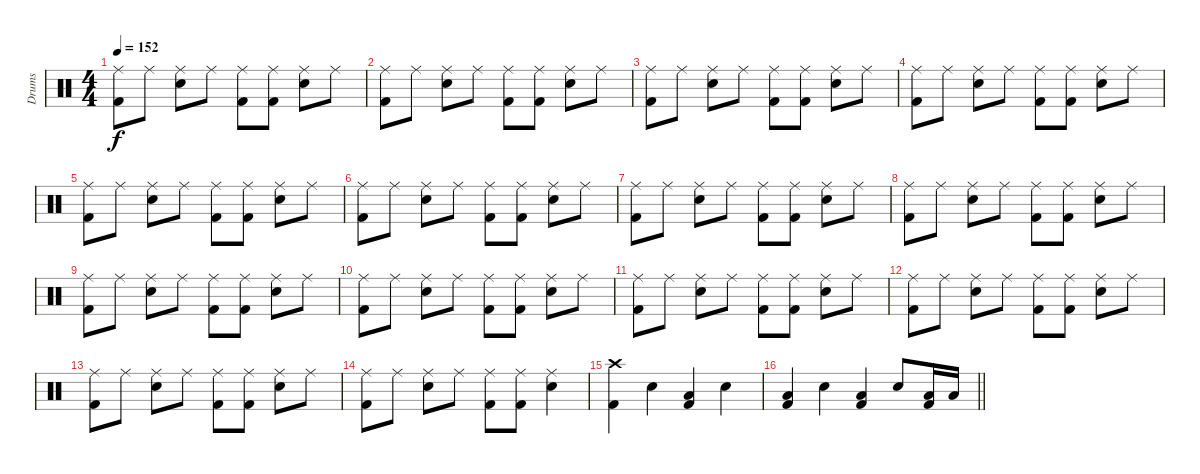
\track ("Drums" "Drums") {instrument percussion}
\staff {score}
\articulation defaults
\ts (4 4)
\tempo 152
\clef neutral
\ks c
("Ride (middle)" "Kick (hit) 2").8{dy f} "Ride (middle)".8 ("Ride (middle)" "Snare (hit) 2").8 "Ride (middle)".8 ("Ride (middle)" "Kick (hit) 2").8 ("Ride (middle)" "Kick (hit) 2").8 ("Ride (middle)" "Snare (hit) 2").8 "Ride (middle)".8 |
("Ride (middle)" "Kick (hit) 2").8 "Ride (middle)".8 ("Ride (middle)" "Snare (hit) 2").8 "Ride (middle)".8 ("Ride (middle)" "Kick (hit) 2").8 ("Ride (middle)" "Kick (hit) 2").8 ("Ride (middle)" "Snare (hit) 2").8 "Ride (middle)".8 |
("Ride (middle)" "Kick (hit) 2").8 "Ride (middle)".8 ("Ride (middle)" "Snare (hit) 2").8 "Ride (middle)".8 ("Ride (middle)" "Kick (hit) 2").8 ("Ride (middle)" "Kick (hit) 2").8 ("Ride (middle)" "Snare (hit) 2").8 "Ride (middle)".8 |
("Ride (middle)" "Kick (hit) 2").8 "Ride (middle)".8 ("Ride (middle)" "Snare (hit) 2").8 "Ride (middle)".8 ("Ride (middle)" "Kick (hit) 2").8 ("Ride (middle)" "Kick (hit) 2").8 ("Ride (middle)" "Snare (hit) 2").8 "Ride (middle)".8 |
("Ride (middle)" "Kick (hit) 2").8 "Ride (middle)".8 ("Ride (middle)" "Snare (hit) 2").8 "Ride (middle)".8 ("Ride (middle)" "Kick (hit) 2").8 ("Ride (middle)" "Kick (hit) 2").8 ("Ride (middle)" "Snare (hit) 2").8 "Ride (middle)".8 |
("Ride (middle)" "Kick (hit) 2").8 "Ride (middle)".8 ("Ride (middle)" "Snare (hit) 2").8 "Ride (middle)".8 ("Ride (middle)" "Kick (hit) 2").8 ("Ride (middle)" "Kick (hit) 2").8 ("Ride (middle)" "Snare (hit) 2").8 "Ride (middle)".8 |
("Ride (middle)" "Kick (hit) 2").8 "Ride (middle)".8 ("Ride (middle)" "Snare (hit) 2").8 "Ride (middle)".8 ("Ride (middle)" "Kick (hit) 2").8 ("Ride (middle)" "Kick (hit) 2").8 ("Ride (middle)" "Snare (hit) 2").8 "Ride (middle)".8 |
("Ride (middle)" "Kick (hit) 2").8 "Ride (middle)".8 ("Ride (middle)" "Snare (hit) 2").8 "Ride (middle)".8 ("Ride (middle)" "Kick (hit) 2").8 ("Ride (middle)" "Kick (hit) 2").8 ("Ride (middle)" "Snare (hit) 2").8 "Ride (middle)".8 |
("Ride (middle)" "Kick (hit) 2").8 "Ride (middle)".8 ("Ride (middle)" "Snare (hit) 2").8 "Ride (middle)".8 ("Ride (middle)" "Kick (hit) 2").8 ("Ride (middle)" "Kick (hit) 2").8 ("Ride (middle)" "Snare (hit) 2").8 "Ride (middle)".8 |
("Ride (middle)" "Kick (hit) 2").8 "Ride (middle)".8 ("Ride (middle)" "Snare (hit) 2").8 "Ride (middle)".8 ("Ride (middle)" "Kick (hit) 2").8 ("Ride (middle)" "Kick (hit) 2").8 ("Ride (middle)" "Snare (hit) 2").8 "Ride (middle)".8 |
("Ride (middle)" "Kick (hit) 2").8 "Ride (middle)".8 ("Ride (middle)" "Snare (hit) 2").8 "Ride (middle)".8 ("Ride (middle)" "Kick (hit) 2").8 ("Ride (middle)" "Kick (hit) 2").8 ("Ride (middle)" "Snare (hit) 2").8 "Ride (middle)".8 |
("Ride (middle)" "Kick (hit) 2").8 "Ride (middle)".8 ("Ride (middle)" "Snare (hit) 2").8 "Ride (middle)".8 ("Ride (middle)" "Kick (hit) 2").8 ("Ride (middle)" "Kick (hit) 2").8 ("Ride (middle)" "Snare (hit) 2").8 "Ride (middle)".8 |
("Ride (middle)" "Kick (hit) 2").8 "Ride (middle)".8 ("Ride (middle)" "Snare (hit) 2").8 "Ride (middle)".8 ("Ride (middle)" "Kick (hit) 2").8 ("Ride (middle)" "Kick (hit) 2").8 ("Ride (middle)" "Snare (hit) 2").8 "Ride (middle)".8 |
("Ride (middle)" "Kick (hit) 2").8 "Ride (middle)".8 ("Ride (middle)" "Snare (hit) 2").8 "Ride (middle)".8 ("Ride (middle)" "Kick (hit) 2").8 ("Ride (middle)" "Kick (hit) 2").8 ("Ride (middle)" "Snare (hit) 2").4 |
("Crash high (hit)" "Kick (hit) 2").4 "Snare (hit) 2".4 ("Low Floor Tom (hit)" "Kick (hit) 2").4 "Snare (hit) 2".4 |
\barLineRight lightlight
("Low Floor Tom (hit)" "Kick (hit) 2").4 "Snare (hit) 2".4 ("Low Floor Tom (hit)" "Kick (hit) 2").4 "Snare (hit) 2".8 ("Low Tom (hit)" "Kick (hit) 2").16 "Low Tom (hit)".16
